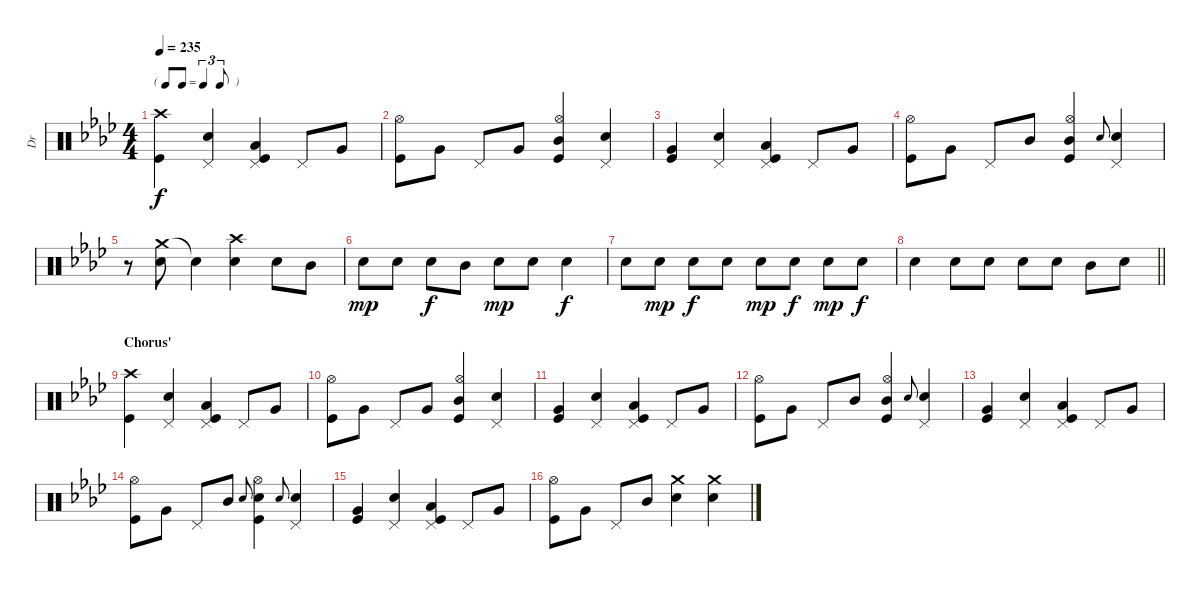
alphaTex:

\track ("Dr" "Dr") {instrument percussion}
\staff {score}
\articulation defaults
\ts (4 4)
\tf triplet8th
\tempo 235
\clef neutral
\ks ab
("Crash high (hit)" "Kick (hit)").4{dy f} ("Electric Snare (hit)" "Pedal Hi-Hat (hit)").4 ("Low Floor Tom (hit)" "Kick (hit)" "Pedal Hi-Hat (hit)").4 "Pedal Hi-Hat (hit)".8 "Very Low Tom (hit)".8 |
("Kick (hit)" "Hi-Hat (open)").8 "Very Low Tom (hit)".8 "Pedal Hi-Hat (hit)".8 "Very Low Tom (hit)".8 ("Mid Tom (hit)" "Kick (hit)" "Hi-Hat (open)").4 ("Electric Snare (hit)" "Pedal Hi-Hat (hit)").4 |
("Very Low Tom (hit)" "Kick (hit)").4 ("Electric Snare (hit)" "Pedal Hi-Hat (hit)").4 ("Low Floor Tom (hit)" "Kick (hit)" "Pedal Hi-Hat (hit)").4 "Pedal Hi-Hat (hit)".8 "Very Low Tom (hit)".8 |
("Kick (hit)" "Hi-Hat (open)").8 "Very Low Tom (hit)".8 "Pedal Hi-Hat (hit)".8 "Mid Tom (hit)".8 ("Mid Tom (hit)" "Kick (hit)" "Hi-Hat (open)").4 "Electric Snare (hit)".8{gr onbeat} ("Electric Snare (hit)" "Pedal Hi-Hat (hit)").4 |
r.8 ("Crash medium (hit)" "Electric Snare (hit)").8 "Snare (hit)"{t}.4 ("Crash high (hit)" "Electric Snare (hit)").4 "Electric Snare (hit)".8 "Mid Tom (hit)".8 |
"Electric Snare (hit)".8{dy mp} "Electric Snare (hit)".8 "Electric Snare (hit)".8{dy f} "Mid Tom (hit)".8 "Electric Snare (hit)".8{dy mp} "Electric Snare (hit)".8 "Electric Snare (hit)".4{dy f} |
"Electric Snare (hit)".8 "Electric Snare (hit)".8{dy mp} "Electric Snare (hit)".8{dy f} "Electric Snare (hit)".8 "Electric Snare (hit)".8{dy mp} "Electric Snare (hit)".8{dy f} "Electric Snare (hit)".8{dy mp} "Electric Snare (hit)".8{dy f} |
\barLineRight lightlight "Electric Snare (hit)".4 "Electric Snare (hit)".8 "Electric Snare (hit)".8 "Electric Snare (hit)".8 "Electric Snare (hit)".8 "Mid Tom (hit)".8 "Electric Snare (hit)".8
|
\section ("" "Chorus'")
("Crash high (hit)" "Kick (hit)").4 ("Electric Snare (hit)" "Pedal Hi-Hat (hit)").4 ("Low Floor Tom (hit)" "Kick (hit)" "Pedal Hi-Hat (hit)").4 "Pedal Hi-Hat (hit)".8 "Very Low Tom (hit)".8 |
("Kick (hit)" "Hi-Hat (open)").8 "Very Low Tom (hit)".8 "Pedal Hi-Hat (hit)".8 "Very Low Tom (hit)".8 ("Mid Tom (hit)" "Kick (hit)" "Hi-Hat (open)").4 ("Electric Snare (hit)" "Pedal Hi-Hat (hit)").4 |
("Very Low Tom (hit)" "Kick (hit)").4 ("Electric Snare (hit)" "Pedal Hi-Hat (hit)").4 ("Low Floor Tom (hit)" "Kick (hit)" "Pedal Hi-Hat (hit)").4 "Pedal Hi-Hat (hit)".8 "Very Low Tom (hit)".8 |
("Kick (hit)" "Hi-Hat (open)").8 "Very Low Tom (hit)".8 "Pedal Hi-Hat (hit)".8 "Mid Tom (hit)".8 ("Mid Tom (hit)" "Kick (hit)" "Hi-Hat (open)").4 "Electric Snare (hit)".8{gr onbeat} ("Electric Snare (hit)" "Pedal Hi-Hat (hit)").4 |
("Very Low Tom (hit)" "Kick (hit)").4 ("Electric Snare (hit)" "Pedal Hi-Hat (hit)").4 ("Low Floor Tom (hit)" "Kick (hit)" "Pedal Hi-Hat (hit)").4 "Pedal Hi-Hat (hit)".8 "Very Low Tom (hit)".8 |
("Kick (hit)" "Hi-Hat (open)").8 "Very Low Tom (hit)".8 "Pedal Hi-Hat (hit)".8 "Mid Tom (hit)".8 "Electric Snare (hit)".8{gr onbeat} ("Electric Snare (hit)" "Kick (hit)" "Hi-Hat (open)").4 "Electric Snare (hit)".8{gr onbeat} ("Electric Snare (hit)" "Pedal Hi-Hat (hit)").4 |
("Very Low Tom (hit)" "Kick (hit)").4 ("Electric Snare (hit)" "Pedal Hi-Hat (hit)").4 ("Low Floor Tom (hit)" "Kick (hit)" "Pedal Hi-Hat (hit)").4 "Pedal Hi-Hat (hit)".8 "Very Low Tom (hit)".8 |
("Kick (hit)" "Hi-Hat (open)").8 "Very Low Tom (hit)".8 "Pedal Hi-Hat (hit)".8 "Mid Tom (hit)".8 ("Crash medium (hit)" "Electric Snare (hit)").4 ("Crash medium (hit)" "Electric Snare (hit)").4
